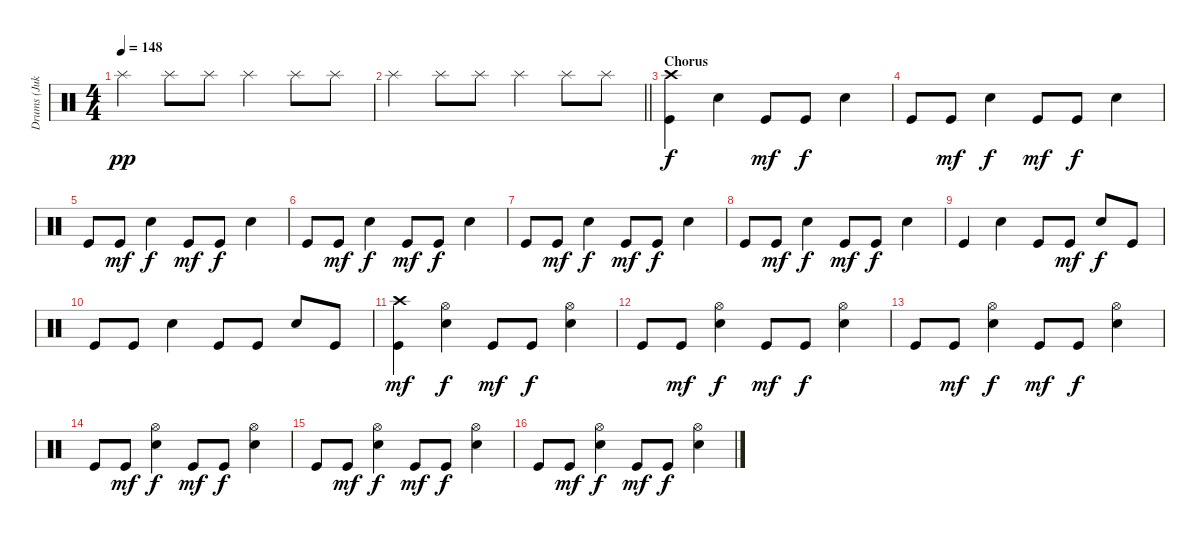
\track ("Drums (Jukka)" "Drums (Juk") {instrument percussion}
\staff {score}
\articulation defaults
\ts (4 4)
\tempo 148
\clef neutral
\ks c "Splash (hit)".4{dy pp} "Splash (hit)".8 "Splash (hit)".8 "Splash (hit)".4 "Splash (hit)".8 "Splash (hit)".8
|
\barLineRight lightlight "Splash (hit)".4 "Splash (hit)".8 "Splash (hit)".8 "Splash (hit)".4 "Splash (hit)".8 "Splash (hit)".8
|
\section ("" "Chorus")
("Kick (hit)" "Crash high (hit)").4{dy f} "Snare (hit) 2".4 "Kick (hit)".8{dy mf} "Kick (hit)".8{dy f} "Snare (hit) 2".4 |
"Kick (hit)".8 "Kick (hit)".8{dy mf} "Snare (hit) 2".4{dy f} "Kick (hit)".8{dy mf} "Kick (hit)".8{dy f} "Snare (hit) 2".4 |
"Kick (hit)".8 "Kick (hit)".8{dy mf} "Snare (hit) 2".4{dy f} "Kick (hit)".8{dy mf} "Kick (hit)".8{dy f} "Snare (hit) 2".4 |
"Kick (hit)".8 "Kick (hit)".8{dy mf} "Snare (hit) 2".4{dy f} "Kick (hit)".8{dy mf} "Kick (hit)".8{dy f} "Snare (hit) 2".4 |
"Kick (hit)".8 "Kick (hit)".8{dy mf} "Snare (hit) 2".4{dy f} "Kick (hit)".8{dy mf} "Kick (hit)".8{dy f} "Snare (hit) 2".4 |
"Kick (hit)".8 "Kick (hit)".8{dy mf} "Snare (hit) 2".4{dy f} "Kick (hit)".8{dy mf} "Kick (hit)".8{dy f} "Snare (hit) 2".4 |
"Kick (hit)".4 "Snare (hit) 2".4 "Kick (hit)".8 "Kick (hit)".8{dy mf} "Snare (hit) 2".8{dy f} "Kick (hit)".8 |
"Kick (hit)".8 "Kick (hit)".8 "Snare (hit) 2".4 "Kick (hit)".8 "Kick (hit)".8 "Snare (hit) 2".8 "Kick (hit)".8 |
("Kick (hit)" "Crash high (hit)").4{dy mf} ("Snare (hit) 2" "Hi-Hat (open)").4{dy f} "Kick (hit)".8{dy mf} "Kick (hit)".8{dy f} ("Snare (hit) 2" "Hi-Hat (open)").4 |
"Kick (hit)".8 "Kick (hit)".8{dy mf} ("Snare (hit) 2" "Hi-Hat (open)").4{dy f} "Kick (hit)".8{dy mf} "Kick (hit)".8{dy f} ("Snare (hit) 2" "Hi-Hat (open)").4 |
"Kick (hit)".8 "Kick (hit)".8{dy mf} ("Snare (hit) 2" "Hi-Hat (open)").4{dy f} "Kick (hit)".8{dy mf} "Kick (hit)".8{dy f} ("Snare (hit) 2" "Hi-Hat (open)").4 |
"Kick (hit)".8 "Kick (hit)".8{dy mf} ("Snare (hit) 2" "Hi-Hat (open)").4{dy f} "Kick (hit)".8{dy mf} "Kick (hit)".8{dy f} ("Snare (hit) 2" "Hi-Hat (open)").4 |
"Kick (hit)".8 "Kick (hit)".8{dy mf} ("Snare (hit) 2" "Hi-Hat (open)").4{dy f} "Kick (hit)".8{dy mf} "Kick (hit)".8{dy f} ("Snare (hit) 2" "Hi-Hat (open)").4 |
"Kick (hit)".8 "Kick (hit)".8{dy mf} ("Snare (hit) 2" "Hi-Hat (open)").4{dy f} "Kick (hit)".8{dy mf} "Kick (hit)".8{dy f} ("Snare (hit) 2" "Hi-Hat (open)").4
